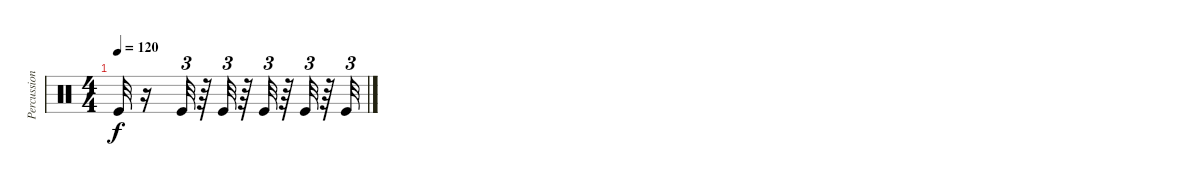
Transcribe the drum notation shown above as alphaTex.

\track ("Percussion" "Percussion") {instrument percussion}
\staff {score}
\articulation defaults
\ts (4 4)
\tempo 120
\clef neutral
\ks c "Kick (hit)".32{dy f}
r.16 "Kick (hit)".32{tu (3 2)} r.64 "Kick (hit)".32{tu (3 2)} r.64 "Kick (hit)".32{tu (3 2)} r.64 "Kick (hit)".32{tu (3 2)} r.64 "Kick (hit)".32{tu (3 2)}
